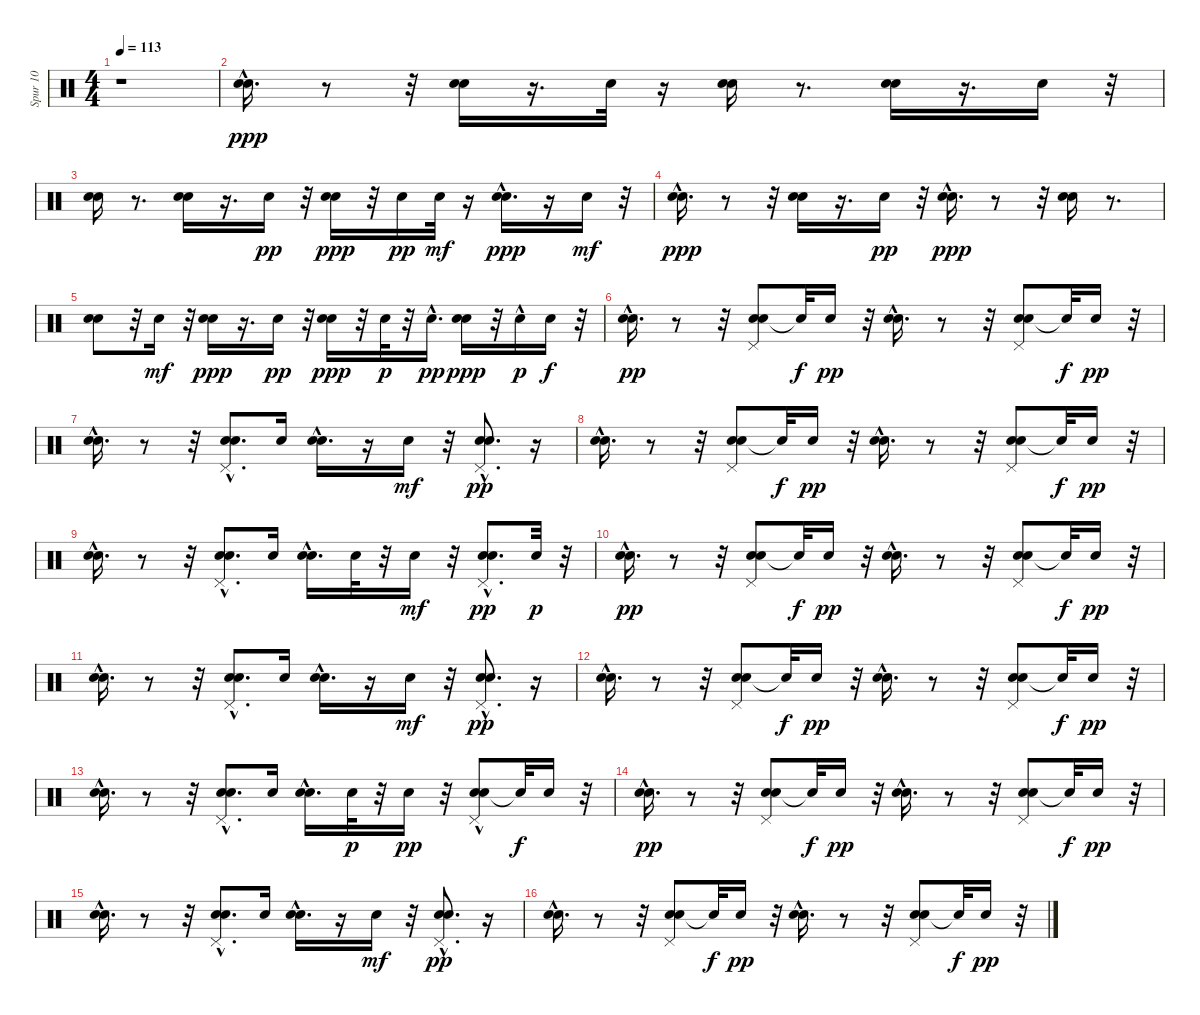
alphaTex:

\track ("Spur 10" "Spur 10") {instrument percussion}
\staff {score}
\articulation defaults
\ts (4 4)
\tempo 113
\clef neutral
\ks c
r.1{dy ppp} |
("Snare (hit) 2"{hac} "Electric Snare (hit)").16{d} r.8 r.32 ("Snare (hit) 2" "Electric Snare (hit)").16 r.16{d} "Snare (hit) 2".32 r.16 ("Snare (hit) 2" "Electric Snare (hit)").16 r.8{d} ("Snare (hit) 2" "Electric Snare (hit)").16 r.16{d} "Snare (hit) 2".16 r.32 |
("Snare (hit) 2" "Electric Snare (hit)").16 r.8{d} ("Snare (hit) 2" "Electric Snare (hit)").16 r.16{d} "Snare (hit) 2".16{dy pp} r.32 ("Snare (hit) 2" "Electric Snare (hit)").16{dy ppp} r.32 "Snare (hit) 2".16{dy pp} "Snare (hit) 2".32{dy mf} r.16 ("Hand Clap (hit)"{hac} "Electric Snare (hit)").16{d dy ppp} r.16 "Hand Clap (hit)".16{dy mf} r.32 |
("Snare (hit) 2"{hac} "Electric Snare (hit)").16{d dy ppp} r.8 r.32 ("Snare (hit) 2" "Electric Snare (hit)").16 r.16{d} "Snare (hit) 2".16{dy pp} r.32 ("Snare (hit) 2"{hac} "Electric Snare (hit)").16{d dy ppp} r.8 r.32 ("Snare (hit) 2" "Electric Snare (hit)").16 r.8{d} |
("Snare (hit) 2" "Electric Snare (hit)").8 r.32 "Hand Clap (hit)".16{dy mf} r.32 ("Snare (hit) 2" "Electric Snare (hit)").16{dy ppp} r.16{d} "Snare (hit) 2".16{dy pp} r.32 ("Hand Clap (hit)" "Electric Snare (hit)").16{dy ppp} r.32 "Snare (hit) 2".32{dy p} r.32 "Snare (hit) 2"{hac}.16{d dy pp} ("Hand Clap (hit)" "Electric Snare (hit)").16{dy ppp} r.32 "Snare (hit) 2"{hac}.16{dy p} "Hand Clap (hit)".16{dy f} r.32 |
("Snare (hit) 2"{hac} "Electric Snare (hit)").16{d dy pp} r.8 r.32 ("Snare (hit) 2" "Pedal Hi-Hat (hit)" "Electric Snare (hit)").8 "Snare (hit)"{t}.32{dy f} "Snare (hit) 2".16{dy pp} r.32 ("Snare (hit) 2"{hac} "Electric Snare (hit)").16{d} r.8 r.32 ("Snare (hit) 2" "Pedal Hi-Hat (hit)" "Electric Snare (hit)").8 "Snare (hit)"{t}.32{dy f} "Snare (hit) 2".16{dy pp} r.32 |
("Snare (hit) 2"{hac} "Electric Snare (hit)").16{d} r.8 r.32 ("Snare (hit) 2" "Pedal Hi-Hat (hit)"{hac} "Electric Snare (hit)").8{d} "Snare (hit) 2".16 ("Snare (hit) 2"{hac} "Electric Snare (hit)").16{d} r.16 "Snare (hit) 2".16{dy mf} r.32 ("Snare (hit) 2"{hac} "Pedal Hi-Hat (hit)"{hac} "Electric Snare (hit)").8{d dy pp} r.16 |
("Snare (hit) 2"{hac} "Electric Snare (hit)").16{d} r.8 r.32 ("Snare (hit) 2" "Pedal Hi-Hat (hit)" "Electric Snare (hit)").8 "Snare (hit)"{t}.32{dy f} "Snare (hit) 2".16{dy pp} r.32 ("Snare (hit) 2"{hac} "Electric Snare (hit)").16{d} r.8 r.32 ("Snare (hit) 2" "Pedal Hi-Hat (hit)" "Electric Snare (hit)").8 "Snare (hit)"{t}.32{dy f} "Snare (hit) 2".16{dy pp} r.32 |
("Snare (hit) 2"{hac} "Electric Snare (hit)").16{d} r.8 r.32 ("Snare (hit) 2" "Pedal Hi-Hat (hit)"{hac} "Electric Snare (hit)").8{d} "Snare (hit) 2".16 ("Snare (hit) 2"{hac} "Electric Snare (hit)").16{d} "Snare (hit) 2".32 r.32 "Snare (hit) 2".16{dy mf} r.32 ("Snare (hit) 2"{hac} "Pedal Hi-Hat (hit)"{hac} "Electric Snare (hit)").8{d dy pp} "Snare (hit) 2".32{dy p} r.32 |
("Snare (hit) 2"{hac} "Electric Snare (hit)").16{d dy pp} r.8 r.32 ("Snare (hit) 2" "Pedal Hi-Hat (hit)" "Electric Snare (hit)").8 "Snare (hit)"{t}.32{dy f} "Snare (hit) 2".16{dy pp} r.32 ("Snare (hit) 2"{hac} "Electric Snare (hit)").16{d} r.8 r.32 ("Snare (hit) 2" "Pedal Hi-Hat (hit)" "Electric Snare (hit)").8 "Snare (hit)"{t}.32{dy f} "Snare (hit) 2".16{dy pp} r.32 |
("Snare (hit) 2"{hac} "Electric Snare (hit)").16{d} r.8 r.32 ("Snare (hit) 2" "Pedal Hi-Hat (hit)"{hac} "Electric Snare (hit)").8{d} "Snare (hit) 2".16 ("Snare (hit) 2"{hac} "Electric Snare (hit)").16{d} r.16 "Snare (hit) 2".16{dy mf} r.32 ("Snare (hit) 2"{hac} "Pedal Hi-Hat (hit)"{hac} "Electric Snare (hit)").8{d dy pp} r.16 |
("Snare (hit) 2"{hac} "Electric Snare (hit)").16{d} r.8 r.32 ("Snare (hit) 2" "Pedal Hi-Hat (hit)" "Electric Snare (hit)").8 "Snare (hit)"{t}.32{dy f} "Snare (hit) 2".16{dy pp} r.32 ("Snare (hit) 2"{hac} "Electric Snare (hit)").16{d} r.8 r.32 ("Snare (hit) 2" "Pedal Hi-Hat (hit)" "Electric Snare (hit)").8 "Snare (hit)"{t}.32{dy f} "Snare (hit) 2".16{dy pp} r.32 |
("Snare (hit) 2"{hac} "Electric Snare (hit)").16{d} r.8 r.32 ("Snare (hit) 2" "Pedal Hi-Hat (hit)"{hac} "Electric Snare (hit)").8{d} "Snare (hit) 2".16 ("Snare (hit) 2"{hac} "Electric Snare (hit)").16{d} "Snare (hit) 2".32{dy p} r.32 "Snare (hit) 2".16{dy pp} r.32 ("Hand Clap (hit)"{hac} "Pedal Hi-Hat (hit)" "Electric Snare (hit)").8 "Snare (hit)"{t}.32{dy f} "Hand Clap (hit)".16 r.32 |
("Snare (hit) 2"{hac} "Electric Snare (hit)").16{d dy pp} r.8 r.32 ("Snare (hit) 2" "Pedal Hi-Hat (hit)" "Electric Snare (hit)").8 "Snare (hit)"{t}.32{dy f} "Snare (hit) 2".16{dy pp} r.32 ("Snare (hit) 2"{hac} "Electric Snare (hit)").16{d} r.8 r.32 ("Snare (hit) 2" "Pedal Hi-Hat (hit)" "Electric Snare (hit)").8 "Snare (hit)"{t}.32{dy f} "Snare (hit) 2".16{dy pp} r.32 |
("Snare (hit) 2"{hac} "Electric Snare (hit)").16{d} r.8 r.32 ("Snare (hit) 2" "Pedal Hi-Hat (hit)"{hac} "Electric Snare (hit)").8{d} "Snare (hit) 2".16 ("Snare (hit) 2"{hac} "Electric Snare (hit)").16{d} r.16 "Snare (hit) 2".16{dy mf} r.32 ("Snare (hit) 2"{hac} "Pedal Hi-Hat (hit)"{hac} "Electric Snare (hit)").8{d dy pp} r.16 |
("Snare (hit) 2"{hac} "Electric Snare (hit)").16{d} r.8 r.32 ("Snare (hit) 2" "Pedal Hi-Hat (hit)" "Electric Snare (hit)").8 "Snare (hit)"{t}.32{dy f} "Snare (hit) 2".16{dy pp} r.32 ("Snare (hit) 2"{hac} "Electric Snare (hit)").16{d} r.8 r.32 ("Snare (hit) 2" "Pedal Hi-Hat (hit)" "Electric Snare (hit)").8 "Snare (hit)"{t}.32{dy f} "Snare (hit) 2".16{dy pp} r.32
